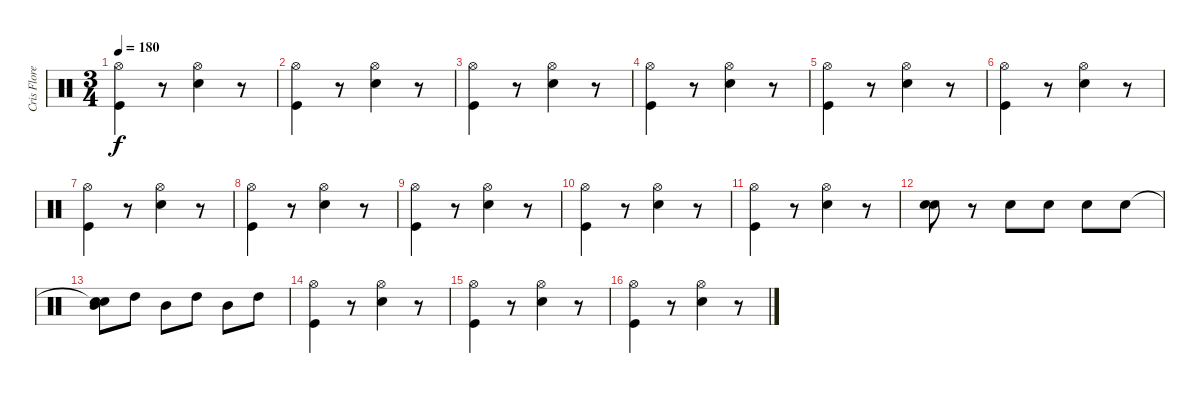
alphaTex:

\track ("Cris Flores" "Cris Flore") {instrument percussion}
\staff {score}
\articulation defaults
\ts (3 4)
\tempo 180
\clef neutral
\ks c
("Kick (hit)" "Hi-Hat (open)").4{dy f} r.8 ("Snare (hit) 2" "Hi-Hat (open)").4 r.8 |
("Kick (hit)" "Hi-Hat (open)").4 r.8 ("Snare (hit) 2" "Hi-Hat (open)").4 r.8 |
("Kick (hit)" "Hi-Hat (open)").4 r.8 ("Snare (hit) 2" "Hi-Hat (open)").4 r.8 |
("Kick (hit)" "Hi-Hat (open)").4 r.8 ("Snare (hit) 2" "Hi-Hat (open)").4 r.8 |
("Kick (hit)" "Hi-Hat (open)").4 r.8 ("Snare (hit) 2" "Hi-Hat (open)").4 r.8 |
("Kick (hit)" "Hi-Hat (open)").4 r.8 ("Snare (hit) 2" "Hi-Hat (open)").4 r.8 |
("Kick (hit)" "Hi-Hat (open)").4 r.8 ("Snare (hit) 2" "Hi-Hat (open)").4 r.8 |
("Kick (hit)" "Hi-Hat (open)").4 r.8 ("Snare (hit) 2" "Hi-Hat (open)").4 r.8 |
("Kick (hit)" "Hi-Hat (open)").4 r.8 ("Snare (hit) 2" "Hi-Hat (open)").4 r.8 |
("Kick (hit)" "Hi-Hat (open)").4 r.8 ("Snare (hit) 2" "Hi-Hat (open)").4 r.8 |
("Kick (hit)" "Hi-Hat (open)").4 r.8 ("Snare (hit) 2" "Hi-Hat (open)").4 r.8 |
("Electric Snare (hit)" "Snare (hit) 2").8 r.8 "Snare (hit) 2".8 "Snare (hit) 2".8 "Snare (hit) 2".8 "Snare (hit) 2".8 |
("Snare (hit)"{t} "Mid Tom (hit)" "Snare (hit)").8 "High Tom (hit)".8 "Mid Tom (hit)".8 "High Tom (hit)".8 "Mid Tom (hit)".8 "High Tom (hit)".8 |
("Kick (hit)" "Hi-Hat (open)").4 r.8 ("Snare (hit) 2" "Hi-Hat (open)").4 r.8 |
("Kick (hit)" "Hi-Hat (open)").4 r.8 ("Snare (hit) 2" "Hi-Hat (open)").4 r.8 |
("Kick (hit)" "Hi-Hat (open)").4 r.8 ("Snare (hit) 2" "Hi-Hat (open)").4 r.8
